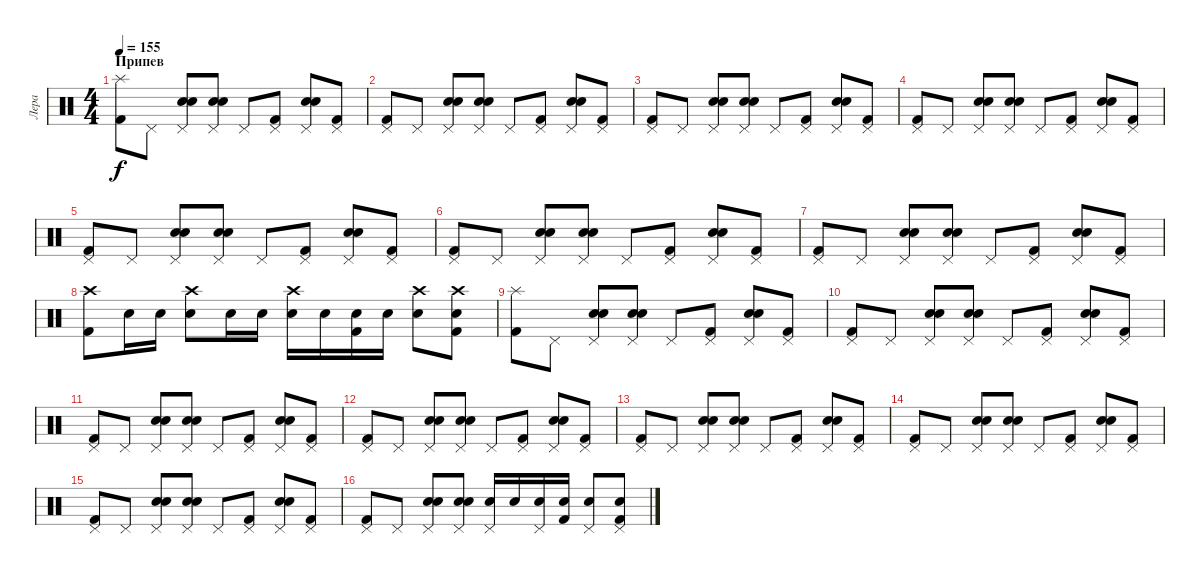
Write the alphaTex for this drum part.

\track ("Лера" "Лера") {instrument percussion}
\staff {score}
\articulation defaults
\ts (4 4)
\section ("" "Припев")
\tempo 155
\clef neutral
\ks c
("Splash (hit)" "Kick (hit) 2").8{dy f} "Pedal Hi-Hat (hit)".8 ("Pedal Hi-Hat (hit)" "Hand Clap (hit)" "Electric Snare (hit)").8 ("Pedal Hi-Hat (hit)" "Hand Clap (hit)" "Electric Snare (hit)").8 "Pedal Hi-Hat (hit)".8 ("Pedal Hi-Hat (hit)" "Kick (hit) 2").8 ("Pedal Hi-Hat (hit)" "Hand Clap (hit)" "Electric Snare (hit)").8 ("Pedal Hi-Hat (hit)" "Kick (hit) 2").8 |
("Pedal Hi-Hat (hit)" "Kick (hit) 2").8 "Pedal Hi-Hat (hit)".8 ("Pedal Hi-Hat (hit)" "Hand Clap (hit)" "Electric Snare (hit)").8 ("Pedal Hi-Hat (hit)" "Hand Clap (hit)" "Electric Snare (hit)").8 "Pedal Hi-Hat (hit)".8 ("Pedal Hi-Hat (hit)" "Kick (hit) 2").8 ("Pedal Hi-Hat (hit)" "Hand Clap (hit)" "Electric Snare (hit)").8 ("Pedal Hi-Hat (hit)" "Kick (hit) 2").8 |
("Pedal Hi-Hat (hit)" "Kick (hit) 2").8 "Pedal Hi-Hat (hit)".8 ("Pedal Hi-Hat (hit)" "Hand Clap (hit)" "Electric Snare (hit)").8 ("Pedal Hi-Hat (hit)" "Hand Clap (hit)" "Electric Snare (hit)").8 "Pedal Hi-Hat (hit)".8 ("Pedal Hi-Hat (hit)" "Kick (hit) 2").8 ("Pedal Hi-Hat (hit)" "Hand Clap (hit)" "Electric Snare (hit)").8 ("Pedal Hi-Hat (hit)" "Kick (hit) 2").8 |
("Pedal Hi-Hat (hit)" "Kick (hit) 2").8 "Pedal Hi-Hat (hit)".8 ("Pedal Hi-Hat (hit)" "Hand Clap (hit)" "Electric Snare (hit)").8 ("Pedal Hi-Hat (hit)" "Hand Clap (hit)" "Electric Snare (hit)").8 "Pedal Hi-Hat (hit)".8 ("Pedal Hi-Hat (hit)" "Kick (hit) 2").8 ("Pedal Hi-Hat (hit)" "Hand Clap (hit)" "Electric Snare (hit)").8 ("Pedal Hi-Hat (hit)" "Kick (hit) 2").8 |
("Pedal Hi-Hat (hit)" "Kick (hit) 2").8 "Pedal Hi-Hat (hit)".8 ("Pedal Hi-Hat (hit)" "Hand Clap (hit)" "Electric Snare (hit)").8 ("Pedal Hi-Hat (hit)" "Hand Clap (hit)" "Electric Snare (hit)").8 "Pedal Hi-Hat (hit)".8 ("Pedal Hi-Hat (hit)" "Kick (hit) 2").8 ("Pedal Hi-Hat (hit)" "Hand Clap (hit)" "Electric Snare (hit)").8 ("Pedal Hi-Hat (hit)" "Kick (hit) 2").8 |
("Pedal Hi-Hat (hit)" "Kick (hit) 2").8 "Pedal Hi-Hat (hit)".8 ("Pedal Hi-Hat (hit)" "Hand Clap (hit)" "Electric Snare (hit)").8 ("Pedal Hi-Hat (hit)" "Hand Clap (hit)" "Electric Snare (hit)").8 "Pedal Hi-Hat (hit)".8 ("Pedal Hi-Hat (hit)" "Kick (hit) 2").8 ("Pedal Hi-Hat (hit)" "Hand Clap (hit)" "Electric Snare (hit)").8 ("Pedal Hi-Hat (hit)" "Kick (hit) 2").8 |
("Pedal Hi-Hat (hit)" "Kick (hit) 2").8 "Pedal Hi-Hat (hit)".8 ("Pedal Hi-Hat (hit)" "Hand Clap (hit)" "Electric Snare (hit)").8 ("Pedal Hi-Hat (hit)" "Hand Clap (hit)" "Electric Snare (hit)").8 "Pedal Hi-Hat (hit)".8 ("Pedal Hi-Hat (hit)" "Kick (hit) 2").8 ("Pedal Hi-Hat (hit)" "Hand Clap (hit)" "Electric Snare (hit)").8 ("Pedal Hi-Hat (hit)" "Kick (hit) 2").8 |
("Crash high (hit)" "Kick (hit) 2").8 "Electric Snare (hit)".16 "Electric Snare (hit)".16 ("Crash high (hit)" "Electric Snare (hit)").8 "Electric Snare (hit)".16 "Electric Snare (hit)".16 ("Crash high (hit)" "Electric Snare (hit)").16 "Electric Snare (hit)".16 ("Electric Snare (hit)" "Kick (hit) 2").16 "Electric Snare (hit)".16 ("Crash high (hit)" "Electric Snare (hit)").8 ("Crash high (hit)" "Electric Snare (hit)" "Kick (hit) 2").8 |
("Splash (hit)" "Kick (hit) 2").8 "Pedal Hi-Hat (hit)".8 ("Pedal Hi-Hat (hit)" "Hand Clap (hit)" "Electric Snare (hit)").8 ("Pedal Hi-Hat (hit)" "Hand Clap (hit)" "Electric Snare (hit)").8 "Pedal Hi-Hat (hit)".8 ("Pedal Hi-Hat (hit)" "Kick (hit) 2").8 ("Pedal Hi-Hat (hit)" "Hand Clap (hit)" "Electric Snare (hit)").8 ("Pedal Hi-Hat (hit)" "Kick (hit) 2").8 |
("Pedal Hi-Hat (hit)" "Kick (hit) 2").8 "Pedal Hi-Hat (hit)".8 ("Pedal Hi-Hat (hit)" "Hand Clap (hit)" "Electric Snare (hit)").8 ("Pedal Hi-Hat (hit)" "Hand Clap (hit)" "Electric Snare (hit)").8 "Pedal Hi-Hat (hit)".8 ("Pedal Hi-Hat (hit)" "Kick (hit) 2").8 ("Pedal Hi-Hat (hit)" "Hand Clap (hit)" "Electric Snare (hit)").8 ("Pedal Hi-Hat (hit)" "Kick (hit) 2").8 |
("Pedal Hi-Hat (hit)" "Kick (hit) 2").8 "Pedal Hi-Hat (hit)".8 ("Pedal Hi-Hat (hit)" "Hand Clap (hit)" "Electric Snare (hit)").8 ("Pedal Hi-Hat (hit)" "Hand Clap (hit)" "Electric Snare (hit)").8 "Pedal Hi-Hat (hit)".8 ("Pedal Hi-Hat (hit)" "Kick (hit) 2").8 ("Pedal Hi-Hat (hit)" "Hand Clap (hit)" "Electric Snare (hit)").8 ("Pedal Hi-Hat (hit)" "Kick (hit) 2").8 |
("Pedal Hi-Hat (hit)" "Kick (hit) 2").8 "Pedal Hi-Hat (hit)".8 ("Pedal Hi-Hat (hit)" "Hand Clap (hit)" "Electric Snare (hit)").8 ("Pedal Hi-Hat (hit)" "Hand Clap (hit)" "Electric Snare (hit)").8 "Pedal Hi-Hat (hit)".8 ("Pedal Hi-Hat (hit)" "Kick (hit) 2").8 ("Pedal Hi-Hat (hit)" "Hand Clap (hit)" "Electric Snare (hit)").8 ("Pedal Hi-Hat (hit)" "Kick (hit) 2").8 |
("Pedal Hi-Hat (hit)" "Kick (hit) 2").8 "Pedal Hi-Hat (hit)".8 ("Pedal Hi-Hat (hit)" "Hand Clap (hit)" "Electric Snare (hit)").8 ("Pedal Hi-Hat (hit)" "Hand Clap (hit)" "Electric Snare (hit)").8 "Pedal Hi-Hat (hit)".8 ("Pedal Hi-Hat (hit)" "Kick (hit) 2").8 ("Pedal Hi-Hat (hit)" "Hand Clap (hit)" "Electric Snare (hit)").8 ("Pedal Hi-Hat (hit)" "Kick (hit) 2").8 |
("Pedal Hi-Hat (hit)" "Kick (hit) 2").8 "Pedal Hi-Hat (hit)".8 ("Pedal Hi-Hat (hit)" "Hand Clap (hit)" "Electric Snare (hit)").8 ("Pedal Hi-Hat (hit)" "Hand Clap (hit)" "Electric Snare (hit)").8 "Pedal Hi-Hat (hit)".8 ("Pedal Hi-Hat (hit)" "Kick (hit) 2").8 ("Pedal Hi-Hat (hit)" "Hand Clap (hit)" "Electric Snare (hit)").8 ("Pedal Hi-Hat (hit)" "Kick (hit) 2").8 |
("Pedal Hi-Hat (hit)" "Kick (hit) 2").8 "Pedal Hi-Hat (hit)".8 ("Pedal Hi-Hat (hit)" "Hand Clap (hit)" "Electric Snare (hit)").8 ("Pedal Hi-Hat (hit)" "Hand Clap (hit)" "Electric Snare (hit)").8 "Pedal Hi-Hat (hit)".8 ("Pedal Hi-Hat (hit)" "Kick (hit) 2").8 ("Pedal Hi-Hat (hit)" "Hand Clap (hit)" "Electric Snare (hit)").8 ("Pedal Hi-Hat (hit)" "Kick (hit) 2").8 |
("Pedal Hi-Hat (hit)" "Kick (hit) 2").8 "Pedal Hi-Hat (hit)".8 ("Pedal Hi-Hat (hit)" "Hand Clap (hit)" "Electric Snare (hit)").8 ("Pedal Hi-Hat (hit)" "Hand Clap (hit)" "Electric Snare (hit)").8 ("Pedal Hi-Hat (hit)" "Electric Snare (hit)").16 "Electric Snare (hit)".16 ("Pedal Hi-Hat (hit)" "Electric Snare (hit)").16 ("Electric Snare (hit)" "Kick (hit) 2").16 ("Pedal Hi-Hat (hit)" "Electric Snare (hit)").8 ("Pedal Hi-Hat (hit)" "Electric Snare (hit)" "Kick (hit) 2").8
